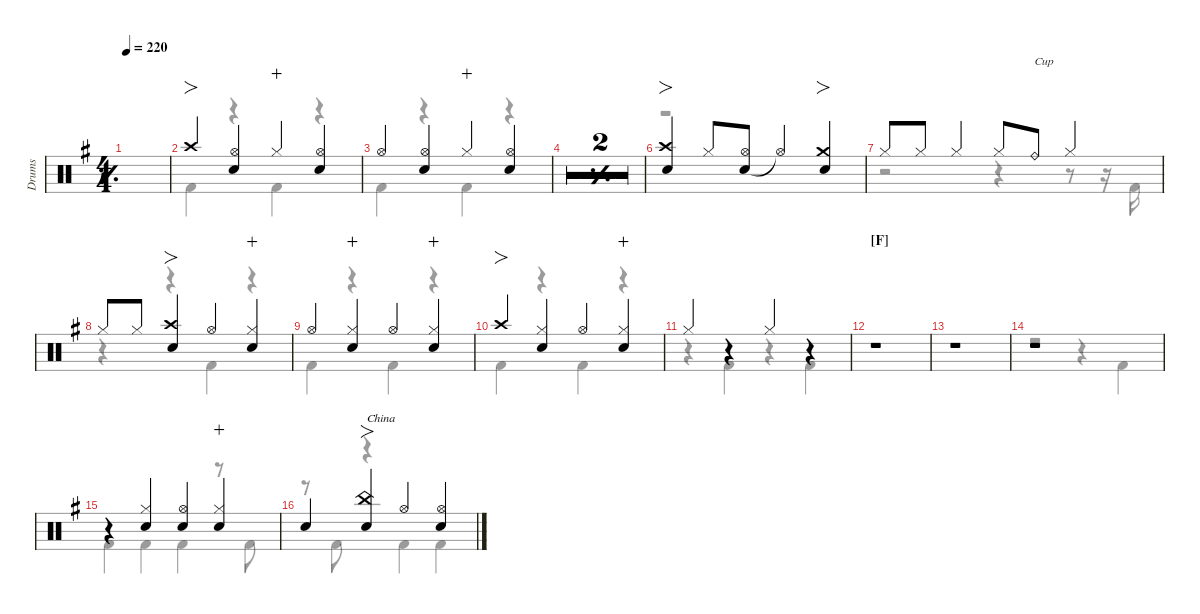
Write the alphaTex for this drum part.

\hideDynamics
\bracketExtendMode nobrackets
\multiBarRest
\otherSystemsTrackNameOrientation horizontal
\track ("Drums" "Drums") {defaultSystemsLayout 4 multiBarRest instrument percussion}
\staff {score}
\articulation defaults
\voice
\ts (4 4)
\tempo 220
\clef neutral
\simile simple
\scale
0.97879
\ks g
|
\simile none
\scale
1.06363 "Crash high (hit)"{acc forcenatural}.4{fo beam Up} ("Hi-Hat (open)"{acc forcenatural} "Snare (hit) 2"{acc forcenatural}).4{beam Up} "Hi-Hat (closed)"{acc forcenatural}.4{wahc beam Up} ("Snare (hit) 2"{acc forcenatural} "Hi-Hat (open)"{acc forcenatural}).4{beam Up} |
\scale
0.97879 "Hi-Hat (open)"{acc forcenatural}.4{beam Up} ("Snare (hit) 2"{acc forcenatural} "Hi-Hat (open)"{acc forcenatural}).4{beam Up} "Hi-Hat (closed)"{acc forcenatural}.4{wahc beam Up} ("Snare (hit) 2"{acc forcenatural} "Hi-Hat (open)"{acc forcenatural}).4{beam Up} |
\simile simple
\scale
0.97879 |
\scale
0.97879 |
\simile none
\scale
1.06758 ("Snare (hit) 2"{acc forcenatural} "Crash high (hit)"{acc forcenatural}).4{fo beam Up} "Hi-Hat (closed)"{acc forcenatural}.8{beam Up} ("Snare (hit) 2"{acc forcenatural} "Hi-Hat (open)"{acc forcenatural}).8{beam Up} "Hi-Hat (open)"{t acc forcenatural}.4{beam Up} ("Snare (hit) 2"{acc forcenatural} "Crash medium (hit)"{acc forcenatural}).4{fo beam Up} |
\scale
0.977474 "Hi-Hat (closed)"{acc forcenatural}.8{beam Up} "Hi-Hat (closed)"{acc forcenatural}.8{dy mf beam Up} "Hi-Hat (closed)"{acc forcenatural}.4{dy f beam Up} "Hi-Hat (closed)"{acc forcenatural}.8{beam Up} "Ride (bell)"{acc forcenatural}.8{txt "Cup" beam Up} "Hi-Hat (closed)"{acc forcenatural}.4{beam Up} |
\scale
0.977474 "Hi-Hat (closed)"{acc forcenatural}.8{beam Up} "Hi-Hat (closed)"{acc forcenatural}.8{dy mf beam Up} ("Snare (hit) 2"{acc forcenatural} "Crash high (hit)"{acc forcenatural}).4{fo dy f beam Up} "Hi-Hat (open)"{acc forcenatural}.4{beam Up} ("Snare (hit) 2"{acc forcenatural} "Hi-Hat (closed)"{acc forcenatural}).4{wahc beam Up} |
\scale
0.977474 "Hi-Hat (open)"{acc forcenatural}.4{beam Up} ("Snare (hit) 2"{acc forcenatural} "Hi-Hat (closed)"{acc forcenatural}).4{wahc beam Up} "Hi-Hat (open)"{acc forcenatural}.4{beam Up} ("Snare (hit) 2"{acc forcenatural} "Hi-Hat (closed)"{acc forcenatural}).4{wahc beam Up} |
\scale
1.02917 "Crash high (hit)"{acc forcenatural}.4{fo beam Up} ("Snare (hit) 2"{acc forcenatural} "Hi-Hat (closed)"{acc forcenatural}).4{beam Up} "Hi-Hat (open)"{acc forcenatural}.4{beam Up} ("Snare (hit) 2"{acc forcenatural} "Hi-Hat (closed)"{acc forcenatural}).4{wahc beam Up} |
\scale
0.970825 "Hi-Hat (closed)"{acc forcenatural}.4{beam Up} r.4{beam Up} "Hi-Hat (closed)"{acc forcenatural}.4{beam Up} r.4{beam Up} |
\section ("F" "")
\scale
1.06758 r.1{beam Up} |
\scale
0.977474 r.1{beam Up} |
\scale
0.977474 r.1{beam Up} |
\scale
0.977474 r.4{beam Up} ("Snare (hit) 2"{acc forcenatural} "Hi-Hat (closed)"{acc forcenatural}).4{beam Up} ("Snare (hit) 2"{acc forcenatural} "Hi-Hat (open)"{acc forcenatural}).4{beam Up} ("Snare (hit) 2"{acc forcenatural} "Hi-Hat (closed)"{acc forcenatural}).4{wahc beam Up} |
\scale
1.06758 "Snare (hit) 2"{acc forcenatural}.4{beam Up} ("Snare (hit) 2"{acc forcenatural} "China (hit)"{acc forcenatural}).4{fo txt "China" beam Up} "Hi-Hat (open)"{acc forcenatural}.4{beam Up} ("Snare (hit) 2"{acc forcenatural} "Hi-Hat (open)"{acc forcenatural}).4{beam Up}
\voice
\clef neutral
\ottava regular
\simile simple
\scale
0.97879
\ks g
|
\simile none
\scale
1.06363 "Kick (hit) 2"{acc forcenatural}.4{beam Down} r.4{beam Down} "Kick (hit) 2"{acc forcenatural}.4{beam Down} r.4{beam Down} |
\scale
0.97879 "Kick (hit) 2"{acc forcenatural}.4{beam Down} r.4{beam Down} "Kick (hit) 2"{acc forcenatural}.4{beam Down} r.4{beam Down} |
\simile simple
\scale
0.97879 |
\scale
0.97879 |
\simile none
\scale
1.06758 r.1{beam Down} |
\scale
0.977474 r.2{beam Down} r.4{beam Down} r.8{beam Down} r.16{beam Down} "Kick (hit) 2"{acc forcenatural}.16{beam Down} |
\scale
0.977474 r.4{beam Down} r.4{beam Down} "Kick (hit) 2"{acc forcenatural}.4{beam Down} r.4{beam Down} |
\scale
0.977474 "Kick (hit) 2"{acc forcenatural}.4{beam Down} r.4{beam Down} "Kick (hit) 2"{acc forcenatural}.4{beam Down} r.4{beam Down} |
\scale
1.02917 "Kick (hit) 2"{acc forcenatural}.4{beam Down} r.4{beam Down} "Kick (hit) 2"{acc forcenatural}.4{beam Down} r.4{beam Down} |
\scale
0.970825 r.4{beam Down} "Kick (hit) 2"{acc forcenatural}.4{beam Down} r.4{beam Down} "Kick (hit) 2"{acc forcenatural}.4{beam Down} |
\scale
1.06758 r.1{beam Down} |
\scale
0.977474 r.1{beam Down} |
\scale
0.977474 r.2{beam Down} r.4{beam Down} "Kick (hit) 2"{acc forcenatural}.4{beam Down} |
\scale
0.977474 "Kick (hit) 2"{acc forcenatural}.4{beam Down} "Kick (hit) 2"{acc forcenatural}.4{beam Down} "Kick (hit) 2"{acc forcenatural}.4{beam Down} r.8{beam Down} "Kick (hit) 2"{acc forcenatural}.8{beam Down} |
\scale
1.06758 r.8{beam Down} "Kick (hit) 2"{acc forcenatural}.8{beam Down} r.4{txt "China" beam Down} "Kick (hit) 2"{acc forcenatural}.4{beam Down} "Kick (hit) 2"{acc forcenatural}.4{beam Down}
